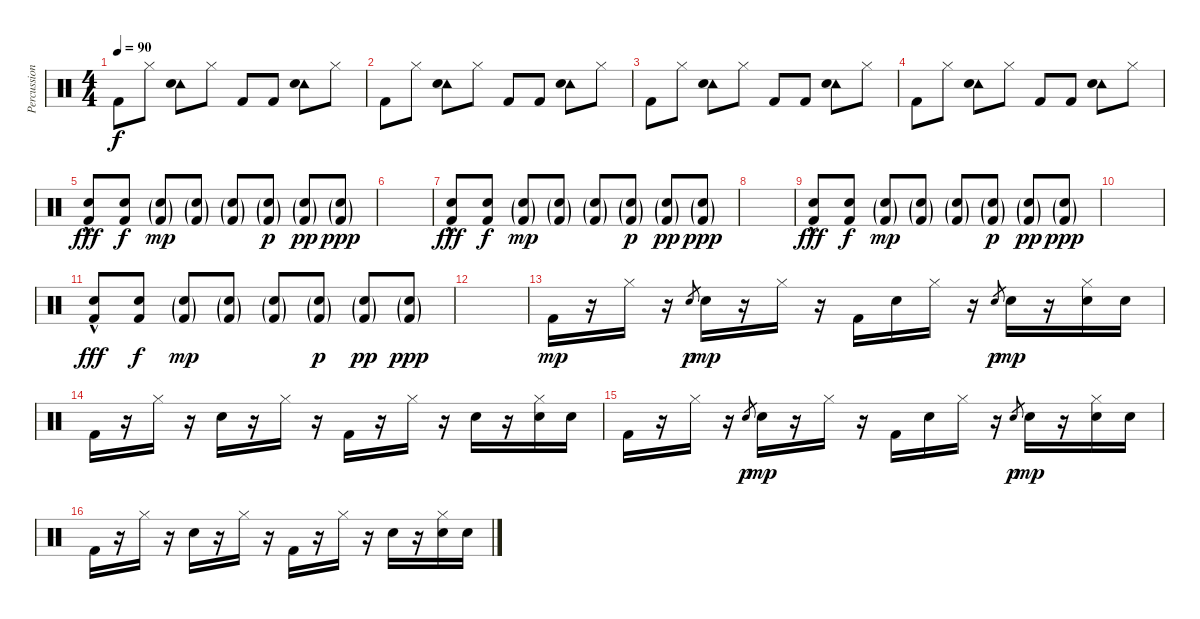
\track ("Percussion" "Percussion") {instrument percussion}
\staff {score}
\articulation defaults
\ts (4 4)
\tempo 90
\clef neutral
\ks c "Kick (hit) 2".8{dy f} "Hi-Hat (closed)".8
("Tambourine (hit)" "Snare (hit) 2").8 "Hi-Hat (closed)".8 "Kick (hit) 2".8 "Kick (hit) 2".8 ("Tambourine (hit)" "Snare (hit) 2").8 "Hi-Hat (closed)".8 |
"Kick (hit) 2".8 "Hi-Hat (closed)".8 ("Tambourine (hit)" "Snare (hit) 2").8 "Hi-Hat (closed)".8 "Kick (hit) 2".8 "Kick (hit) 2".8 ("Tambourine (hit)" "Snare (hit) 2").8 "Hi-Hat (closed)".8 |
"Kick (hit) 2".8 "Hi-Hat (closed)".8 ("Tambourine (hit)" "Snare (hit) 2").8 "Hi-Hat (closed)".8 "Kick (hit) 2".8 "Kick (hit) 2".8 ("Tambourine (hit)" "Snare (hit) 2").8 "Hi-Hat (closed)".8 |
"Kick (hit) 2".8 "Hi-Hat (closed)".8 ("Tambourine (hit)" "Snare (hit) 2").8 "Hi-Hat (closed)".8 "Kick (hit) 2".8 "Kick (hit) 2".8 ("Tambourine (hit)" "Snare (hit) 2").8 "Hi-Hat (closed)".8 |
("Snare (hit) 2"{hac} "Kick (hit) 2"{hac}).8{dy fff} ("Snare (hit) 2" "Kick (hit) 2").8{dy f} ("Snare (hit) 2"{g} "Kick (hit) 2"{g}).8{dy mp} ("Snare (hit) 2"{g} "Kick (hit) 2"{g}).8 ("Snare (hit) 2"{g} "Kick (hit) 2"{g}).8 ("Snare (hit) 2"{g} "Kick (hit) 2"{g}).8{dy p} ("Snare (hit) 2"{g} "Kick (hit) 2"{g}).8{dy pp} ("Snare (hit) 2"{g} "Kick (hit) 2"{g}).8{dy ppp} |
|
("Snare (hit) 2"{hac} "Kick (hit) 2"{hac}).8{dy fff} ("Snare (hit) 2" "Kick (hit) 2").8{dy f} ("Snare (hit) 2"{g} "Kick (hit) 2"{g}).8{dy mp} ("Snare (hit) 2"{g} "Kick (hit) 2"{g}).8 ("Snare (hit) 2"{g} "Kick (hit) 2"{g}).8 ("Snare (hit) 2"{g} "Kick (hit) 2"{g}).8{dy p} ("Snare (hit) 2"{g} "Kick (hit) 2"{g}).8{dy pp} ("Snare (hit) 2"{g} "Kick (hit) 2"{g}).8{dy ppp} |
|
("Snare (hit) 2"{hac} "Kick (hit) 2"{hac}).8{dy fff} ("Snare (hit) 2" "Kick (hit) 2").8{dy f} ("Snare (hit) 2"{g} "Kick (hit) 2"{g}).8{dy mp} ("Snare (hit) 2"{g} "Kick (hit) 2"{g}).8 ("Snare (hit) 2"{g} "Kick (hit) 2"{g}).8 ("Snare (hit) 2"{g} "Kick (hit) 2"{g}).8{dy p} ("Snare (hit) 2"{g} "Kick (hit) 2"{g}).8{dy pp} ("Snare (hit) 2"{g} "Kick (hit) 2"{g}).8{dy ppp} |
|
("Snare (hit) 2"{hac} "Kick (hit) 2"{hac}).8{dy fff} ("Snare (hit) 2" "Kick (hit) 2").8{dy f} ("Snare (hit) 2"{g} "Kick (hit) 2"{g}).8{dy mp} ("Snare (hit) 2"{g} "Kick (hit) 2"{g}).8 ("Snare (hit) 2"{g} "Kick (hit) 2"{g}).8 ("Snare (hit) 2"{g} "Kick (hit) 2"{g}).8{dy p} ("Snare (hit) 2"{g} "Kick (hit) 2"{g}).8{dy pp} ("Snare (hit) 2"{g} "Kick (hit) 2"{g}).8{dy ppp} |
|
"Kick (hit) 2".16{dy mp} r.16 "Hi-Hat (closed)".16 r.16 "Snare (hit) 2".8{gr dy p} "Snare (hit) 2".16{dy mp} r.16 "Hi-Hat (closed)".16 r.16 "Kick (hit) 2".16 "Snare (hit) 2".16 "Hi-Hat (closed)".16 r.16 "Snare (hit) 2".8{gr dy p} "Snare (hit) 2".16{dy mp} r.16 ("Hi-Hat (closed)" "Snare (hit) 2").16 "Snare (hit) 2".16 |
"Kick (hit) 2".16 r.16 "Hi-Hat (closed)".16 r.16 "Snare (hit) 2".16 r.16 "Hi-Hat (closed)".16 r.16 "Kick (hit) 2".16 r.16 "Hi-Hat (closed)".16 r.16 "Snare (hit) 2".16 r.16 ("Hi-Hat (closed)" "Snare (hit) 2").16 "Snare (hit) 2".16 |
"Kick (hit) 2".16 r.16 "Hi-Hat (closed)".16 r.16 "Snare (hit) 2".8{gr dy p} "Snare (hit) 2".16{dy mp} r.16 "Hi-Hat (closed)".16 r.16 "Kick (hit) 2".16 "Snare (hit) 2".16 "Hi-Hat (closed)".16 r.16 "Snare (hit) 2".8{gr dy p} "Snare (hit) 2".16{dy mp} r.16 ("Hi-Hat (closed)" "Snare (hit) 2").16 "Snare (hit) 2".16 |
"Kick (hit) 2".16 r.16 "Hi-Hat (closed)".16 r.16 "Snare (hit) 2".16 r.16 "Hi-Hat (closed)".16 r.16 "Kick (hit) 2".16 r.16 "Hi-Hat (closed)".16 r.16 "Snare (hit) 2".16 r.16 ("Hi-Hat (closed)" "Snare (hit) 2").16 "Snare (hit) 2".16
